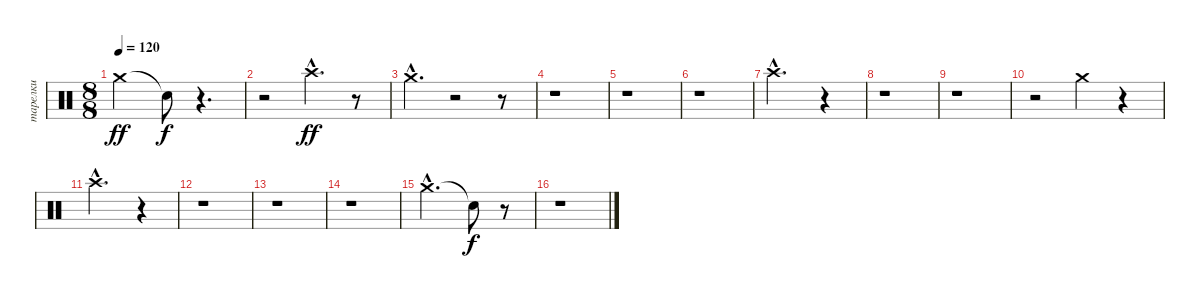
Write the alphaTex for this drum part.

\track ("тарелки" "тарелки") {instrument percussion}
\staff {score}
\articulation defaults
\ts (8 8)
\tempo 120
\clef neutral
\ks c "Crash medium (hit)".2{dy ff} "Snare (hit)"{t}.8{dy f}
r.4{d} |
r.2 "Crash high (hit)"{hac}.4{d dy ff} r.8 |
"Crash medium (hit)"{hac}.4{d} r.2 r.8 |
r.1 |
r.1 |
r.1 |
"Crash high (hit)"{hac}.2{d} r.4 |
r.1 |
r.1 |
r.2 "Crash medium (hit)".4 r.4 |
"Crash high (hit)"{hac}.2{d} r.4 |
r.1 |
r.1 |
r.1 |
"Crash medium (hit)"{hac}.2{d} "Snare (hit)"{t}.8{dy f} r.8 |
r.1
